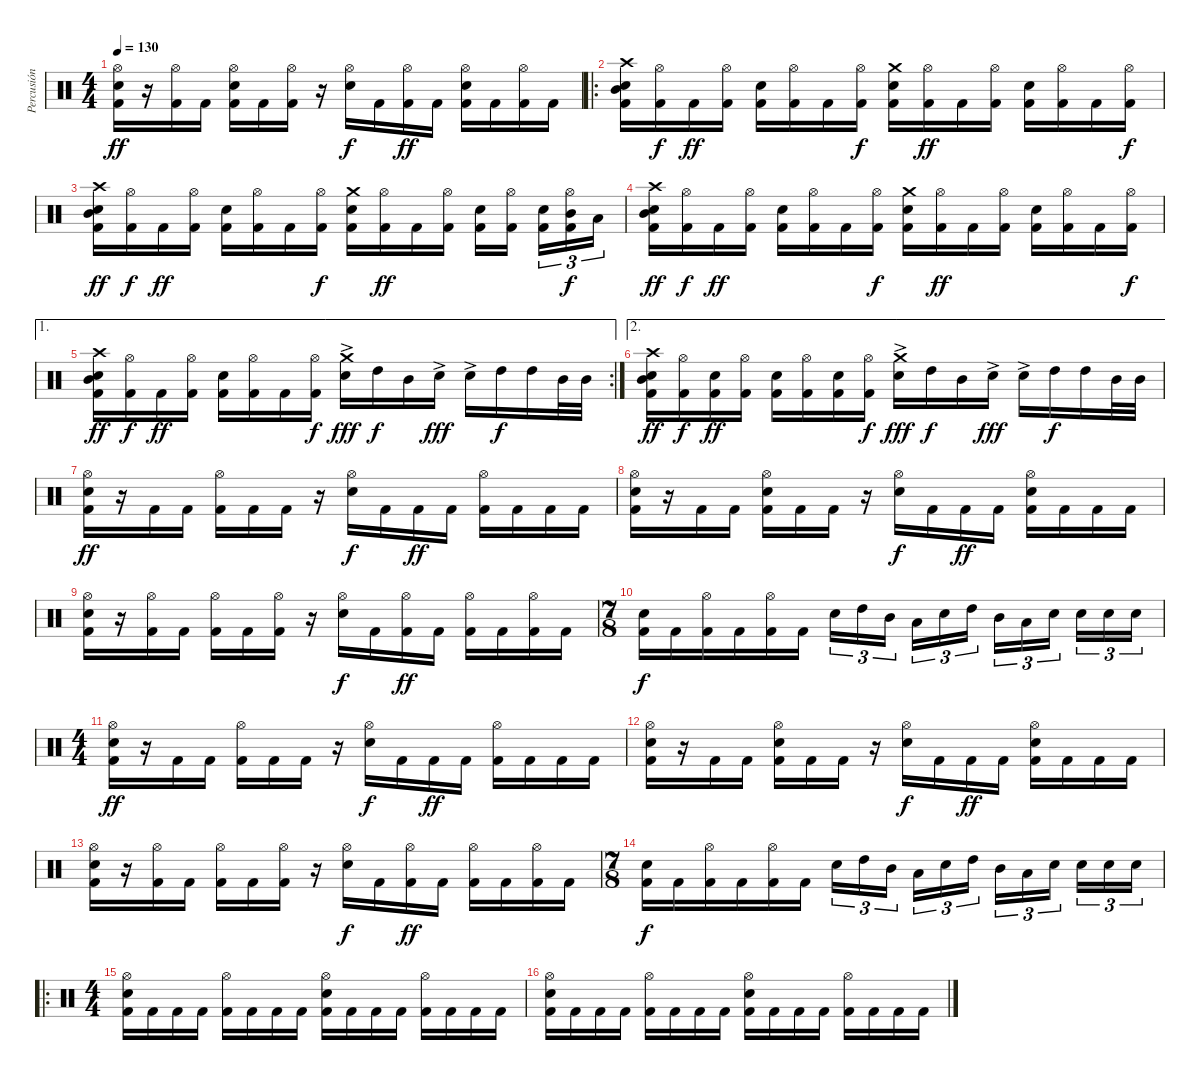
\track ("Percusión" "Percusión") {instrument percussion}
\staff {score}
\articulation defaults
\ts (4 4)
\tempo 130
\clef neutral
\ks c
("Hi-Hat (open)" "Electric Snare (hit)" "Kick (hit) 2").16{dy ff} r.16 ("Hi-Hat (open)" "Kick (hit) 2").16 "Kick (hit) 2".16 ("Hi-Hat (open)" "Electric Snare (hit)" "Kick (hit) 2").16 "Kick (hit) 2".16 ("Hi-Hat (open)" "Kick (hit) 2").16 r.16 ("Hi-Hat (open)" "Electric Snare (hit)").16{dy f} "Kick (hit) 2".16 ("Hi-Hat (open)" "Kick (hit) 2").16{dy ff} "Kick (hit) 2".16 ("Hi-Hat (open)" "Electric Snare (hit)" "Kick (hit) 2").16 "Kick (hit) 2".16 ("Hi-Hat (open)" "Kick (hit) 2").16 "Kick (hit) 2".16 |
\ro
("Crash high (hit)" "Mid Tom (hit)" "Electric Snare (hit)" "Kick (hit) 2").16 ("Hi-Hat (open)" "Kick (hit) 2").16{dy f} "Kick (hit) 2".16{dy ff} ("Hi-Hat (open)" "Kick (hit) 2").16 ("Electric Snare (hit)" "Kick (hit) 2").16 ("Hi-Hat (open)" "Kick (hit) 2").16 "Kick (hit) 2".16 ("Hi-Hat (open)" "Kick (hit) 2").16{dy f} ("Crash medium (hit)" "Electric Snare (hit)" "Kick (hit) 2").16 ("Hi-Hat (open)" "Kick (hit) 2").16{dy ff} "Kick (hit) 2".16 ("Hi-Hat (open)" "Kick (hit) 2").16 ("Electric Snare (hit)" "Kick (hit) 2").16 ("Hi-Hat (open)" "Kick (hit) 2").16 "Kick (hit) 2".16 ("Hi-Hat (open)" "Kick (hit) 2").16{dy f} |
("Crash high (hit)" "Mid Tom (hit)" "Electric Snare (hit)" "Kick (hit) 2").16{dy ff} ("Hi-Hat (open)" "Kick (hit) 2").16{dy f} "Kick (hit) 2".16{dy ff} ("Hi-Hat (open)" "Kick (hit) 2").16 ("Electric Snare (hit)" "Kick (hit) 2").16 ("Hi-Hat (open)" "Kick (hit) 2").16 "Kick (hit) 2".16 ("Hi-Hat (open)" "Kick (hit) 2").16{dy f} ("Crash medium (hit)" "Electric Snare (hit)" "Kick (hit) 2").16 ("Hi-Hat (open)" "Kick (hit) 2").16{dy ff} "Kick (hit) 2".16 ("Hi-Hat (open)" "Kick (hit) 2").16 ("Electric Snare (hit)" "Kick (hit) 2").16 ("Hi-Hat (open)" "Kick (hit) 2").16 ("Electric Snare (hit)" "Kick (hit) 2").16{tu (3 2)} ("Hi-Hat (open)" "Mid Tom (hit)" "Kick (hit) 2").16{tu (3 2) dy f} "Low Tom (hit)".16{tu (3 2)} |
("Crash high (hit)" "Mid Tom (hit)" "Electric Snare (hit)" "Kick (hit) 2").16{dy ff} ("Hi-Hat (open)" "Kick (hit) 2").16{dy f} "Kick (hit) 2".16{dy ff} ("Hi-Hat (open)" "Kick (hit) 2").16 ("Electric Snare (hit)" "Kick (hit) 2").16 ("Hi-Hat (open)" "Kick (hit) 2").16 "Kick (hit) 2".16 ("Hi-Hat (open)" "Kick (hit) 2").16{dy f} ("Crash medium (hit)" "Electric Snare (hit)" "Kick (hit) 2").16 ("Hi-Hat (open)" "Kick (hit) 2").16{dy ff} "Kick (hit) 2".16 ("Hi-Hat (open)" "Kick (hit) 2").16 ("Electric Snare (hit)" "Kick (hit) 2").16 ("Hi-Hat (open)" "Kick (hit) 2").16 "Kick (hit) 2".16 ("Hi-Hat (open)" "Kick (hit) 2").16{dy f} |
\ae 1
\rc 2
("Crash high (hit)" "Mid Tom (hit)" "Electric Snare (hit)" "Kick (hit) 2").16{dy ff} ("Hi-Hat (open)" "Kick (hit) 2").16{dy f} "Kick (hit) 2".16{dy ff} ("Hi-Hat (open)" "Kick (hit) 2").16 ("Electric Snare (hit)" "Kick (hit) 2").16 ("Hi-Hat (open)" "Kick (hit) 2").16 "Kick (hit) 2".16 ("Hi-Hat (open)" "Kick (hit) 2").16{dy f} ("Crash medium (hit)" "Electric Snare (hit)"{ac}).16{dy fff} "High Tom (hit)".16{dy f} "Mid Tom (hit)".16 "Electric Snare (hit)"{ac}.16{dy fff} "Electric Snare (hit)"{ac}.16 "High Tom (hit)".16{dy f} "High Tom (hit)".16 "Mid Tom (hit)".32 "Mid Tom (hit)".32 |
\ae 2
("Crash high (hit)" "Mid Tom (hit)" "Electric Snare (hit)" "Kick (hit) 2").16{dy ff} ("Hi-Hat (open)" "Kick (hit) 2").16{dy f} ("Electric Snare (hit)" "Kick (hit) 2").16{dy ff} ("Hi-Hat (open)" "Kick (hit) 2").16 ("Electric Snare (hit)" "Kick (hit) 2").16 ("Hi-Hat (open)" "Kick (hit) 2").16 ("Electric Snare (hit)" "Kick (hit) 2").16 ("Hi-Hat (open)" "Kick (hit) 2").16{dy f} ("Crash medium (hit)" "Electric Snare (hit)"{ac}).16{dy fff} "High Tom (hit)".16{dy f} "Mid Tom (hit)".16 "Electric Snare (hit)"{ac}.16{dy fff} "Electric Snare (hit)"{ac}.16 "High Tom (hit)".16{dy f} "High Tom (hit)".16 "Mid Tom (hit)".32 "Mid Tom (hit)".32 |
("Hi-Hat (open)" "Electric Snare (hit)" "Kick (hit) 2").16{dy ff} r.16 "Kick (hit) 2".16 "Kick (hit) 2".16 ("Hi-Hat (open)" "Kick (hit) 2").16 "Kick (hit) 2".16 "Kick (hit) 2".16 r.16 ("Hi-Hat (open)" "Electric Snare (hit)").16{dy f} "Kick (hit) 2".16 "Kick (hit) 2".16{dy ff} "Kick (hit) 2".16 ("Hi-Hat (open)" "Kick (hit) 2").16 "Kick (hit) 2".16 "Kick (hit) 2".16 "Kick (hit) 2".16 |
("Hi-Hat (open)" "Electric Snare (hit)" "Kick (hit) 2").16 r.16 "Kick (hit) 2".16 "Kick (hit) 2".16 ("Hi-Hat (open)" "Electric Snare (hit)" "Kick (hit) 2").16 "Kick (hit) 2".16 "Kick (hit) 2".16 r.16 ("Hi-Hat (open)" "Electric Snare (hit)").16{dy f} "Kick (hit) 2".16 "Kick (hit) 2".16{dy ff} "Kick (hit) 2".16 ("Hi-Hat (open)" "Electric Snare (hit)" "Kick (hit) 2").16 "Kick (hit) 2".16 "Kick (hit) 2".16 "Kick (hit) 2".16 |
("Hi-Hat (open)" "Electric Snare (hit)" "Kick (hit) 2").16 r.16 ("Hi-Hat (open)" "Kick (hit) 2").16 "Kick (hit) 2".16 ("Hi-Hat (open)" "Kick (hit) 2").16 "Kick (hit) 2".16 ("Hi-Hat (open)" "Kick (hit) 2").16 r.16 ("Hi-Hat (open)" "Electric Snare (hit)").16{dy f} "Kick (hit) 2".16 ("Hi-Hat (open)" "Kick (hit) 2").16{dy ff} "Kick (hit) 2".16 ("Hi-Hat (open)" "Kick (hit) 2").16 "Kick (hit) 2".16 ("Hi-Hat (open)" "Kick (hit) 2").16 "Kick (hit) 2".16 |
\ts (7 8)
("Electric Snare (hit)" "Kick (hit) 2").16{dy f} "Kick (hit) 2".16 ("Hi-Hat (open)" "Kick (hit) 2").16 "Kick (hit) 2".16 ("Hi-Hat (open)" "Kick (hit) 2").16 "Kick (hit) 2".16 "Electric Snare (hit)".16{tu (3 2)} "High Tom (hit)".16{tu (3 2)} "Mid Tom (hit)".16{tu (3 2)} "Low Tom (hit)".16{tu (3 2)} "Electric Snare (hit)".16{tu (3 2)} "High Tom (hit)".16{tu (3 2)} "Mid Tom (hit)".16{tu (3 2)} "Low Tom (hit)".16{tu (3 2)} "Electric Snare (hit)".16{tu (3 2)} "Electric Snare (hit)".16{tu (3 2)} "Electric Snare (hit)".16{tu (3 2)} "Electric Snare (hit)".16{tu (3 2)} |
\ts (4 4)
("Hi-Hat (open)" "Electric Snare (hit)" "Kick (hit) 2").16{dy ff} r.16 "Kick (hit) 2".16 "Kick (hit) 2".16 ("Hi-Hat (open)" "Kick (hit) 2").16 "Kick (hit) 2".16 "Kick (hit) 2".16 r.16 ("Hi-Hat (open)" "Electric Snare (hit)").16{dy f} "Kick (hit) 2".16 "Kick (hit) 2".16{dy ff} "Kick (hit) 2".16 ("Hi-Hat (open)" "Kick (hit) 2").16 "Kick (hit) 2".16 "Kick (hit) 2".16 "Kick (hit) 2".16 |
("Hi-Hat (open)" "Electric Snare (hit)" "Kick (hit) 2").16 r.16 "Kick (hit) 2".16 "Kick (hit) 2".16 ("Hi-Hat (open)" "Electric Snare (hit)" "Kick (hit) 2").16 "Kick (hit) 2".16 "Kick (hit) 2".16 r.16 ("Hi-Hat (open)" "Electric Snare (hit)").16{dy f} "Kick (hit) 2".16 "Kick (hit) 2".16{dy ff} "Kick (hit) 2".16 ("Hi-Hat (open)" "Electric Snare (hit)" "Kick (hit) 2").16 "Kick (hit) 2".16 "Kick (hit) 2".16 "Kick (hit) 2".16 |
("Hi-Hat (open)" "Electric Snare (hit)" "Kick (hit) 2").16 r.16 ("Hi-Hat (open)" "Kick (hit) 2").16 "Kick (hit) 2".16 ("Hi-Hat (open)" "Kick (hit) 2").16 "Kick (hit) 2".16 ("Hi-Hat (open)" "Kick (hit) 2").16 r.16 ("Hi-Hat (open)" "Electric Snare (hit)").16{dy f} "Kick (hit) 2".16 ("Hi-Hat (open)" "Kick (hit) 2").16{dy ff} "Kick (hit) 2".16 ("Hi-Hat (open)" "Kick (hit) 2").16 "Kick (hit) 2".16 ("Hi-Hat (open)" "Kick (hit) 2").16 "Kick (hit) 2".16 |
\ts (7 8)
("Electric Snare (hit)" "Kick (hit) 2").16{dy f} "Kick (hit) 2".16 ("Hi-Hat (open)" "Kick (hit) 2").16 "Kick (hit) 2".16 ("Hi-Hat (open)" "Kick (hit) 2").16 "Kick (hit) 2".16 "Electric Snare (hit)".16{tu (3 2)} "High Tom (hit)".16{tu (3 2)} "Mid Tom (hit)".16{tu (3 2)} "Low Tom (hit)".16{tu (3 2)} "Electric Snare (hit)".16{tu (3 2)} "High Tom (hit)".16{tu (3 2)} "Mid Tom (hit)".16{tu (3 2)} "Low Tom (hit)".16{tu (3 2)} "Electric Snare (hit)".16{tu (3 2)} "Electric Snare (hit)".16{tu (3 2)} "Electric Snare (hit)".16{tu (3 2)} "Electric Snare (hit)".16{tu (3 2)} |
\ro
\ts (4 4)
("Hi-Hat (open)" "Electric Snare (hit)" "Kick (hit) 2").16 "Kick (hit) 2".16 "Kick (hit) 2".16 "Kick (hit) 2".16 ("Hi-Hat (open)" "Kick (hit) 2").16 "Kick (hit) 2".16 "Kick (hit) 2".16 "Kick (hit) 2".16 ("Hi-Hat (open)" "Electric Snare (hit)" "Kick (hit) 2").16 "Kick (hit) 2".16 "Kick (hit) 2".16 "Kick (hit) 2".16 ("Hi-Hat (open)" "Kick (hit) 2").16 "Kick (hit) 2".16 "Kick (hit) 2".16 "Kick (hit) 2".16 |
("Hi-Hat (open)" "Electric Snare (hit)" "Kick (hit) 2").16 "Kick (hit) 2".16 "Kick (hit) 2".16 "Kick (hit) 2".16 ("Hi-Hat (open)" "Kick (hit) 2").16 "Kick (hit) 2".16 "Kick (hit) 2".16 "Kick (hit) 2".16 ("Hi-Hat (open)" "Electric Snare (hit)" "Kick (hit) 2").16 "Kick (hit) 2".16 "Kick (hit) 2".16 "Kick (hit) 2".16 ("Hi-Hat (open)" "Kick (hit) 2").16 "Kick (hit) 2".16 "Kick (hit) 2".16 "Kick (hit) 2".16
